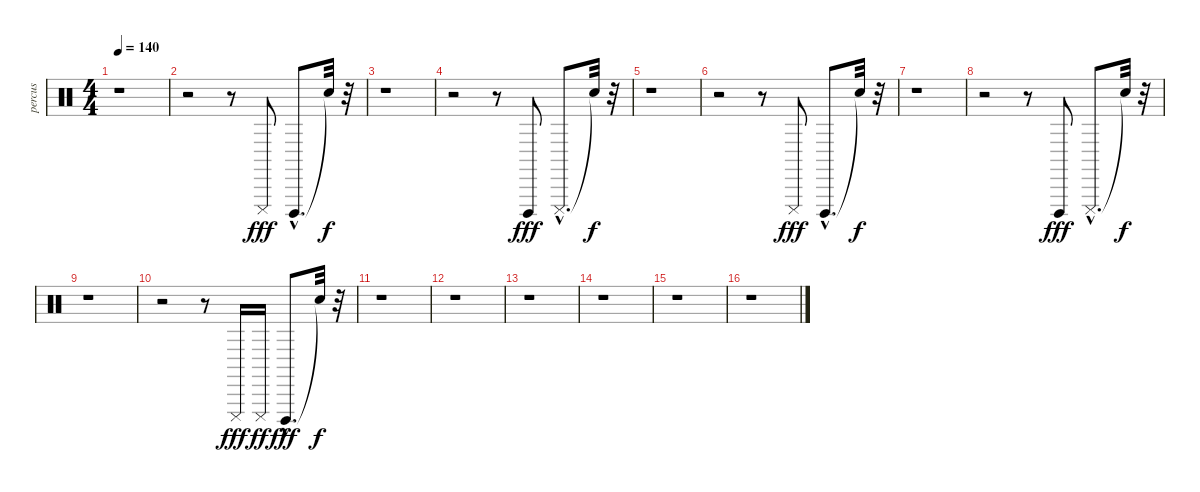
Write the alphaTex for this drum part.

\track ("percus" "percus") {instrument percussion}
\staff {score}
\articulation defaults
\ts (4 4)
\tempo 140
\clef neutral
\ks c
r.1{dy fff} |
r.2 r.8 "Cuica (mute)".8 "Cuica (open)"{hac}.8{d} "Snare (hit)"{t}.32{dy f} r.32 |
r.1 |
r.2 r.8 "Cuica (open)".8{dy fff} "Cuica (mute)"{hac}.8{d} "Snare (hit)"{t}.32{dy f} r.32 |
r.1 |
r.2 r.8 "Cuica (mute)".8{dy fff} "Cuica (open)"{hac}.8{d} "Snare (hit)"{t}.32{dy f} r.32 |
r.1 |
r.2 r.8 "Cuica (open)".8{dy fff} "Cuica (mute)"{hac}.8{d} "Snare (hit)"{t}.32{dy f} r.32 |
r.1 |
r.2 r.8 "Cuica (mute)".16{dy fff} "Cuica (mute)".16{dy ff} "Cuica (open)"{hac}.8{d dy fff} "Snare (hit)"{t}.32{dy f} r.32 |
r.1 |
r.1 |
r.1 |
r.1 |
r.1 |
r.1
